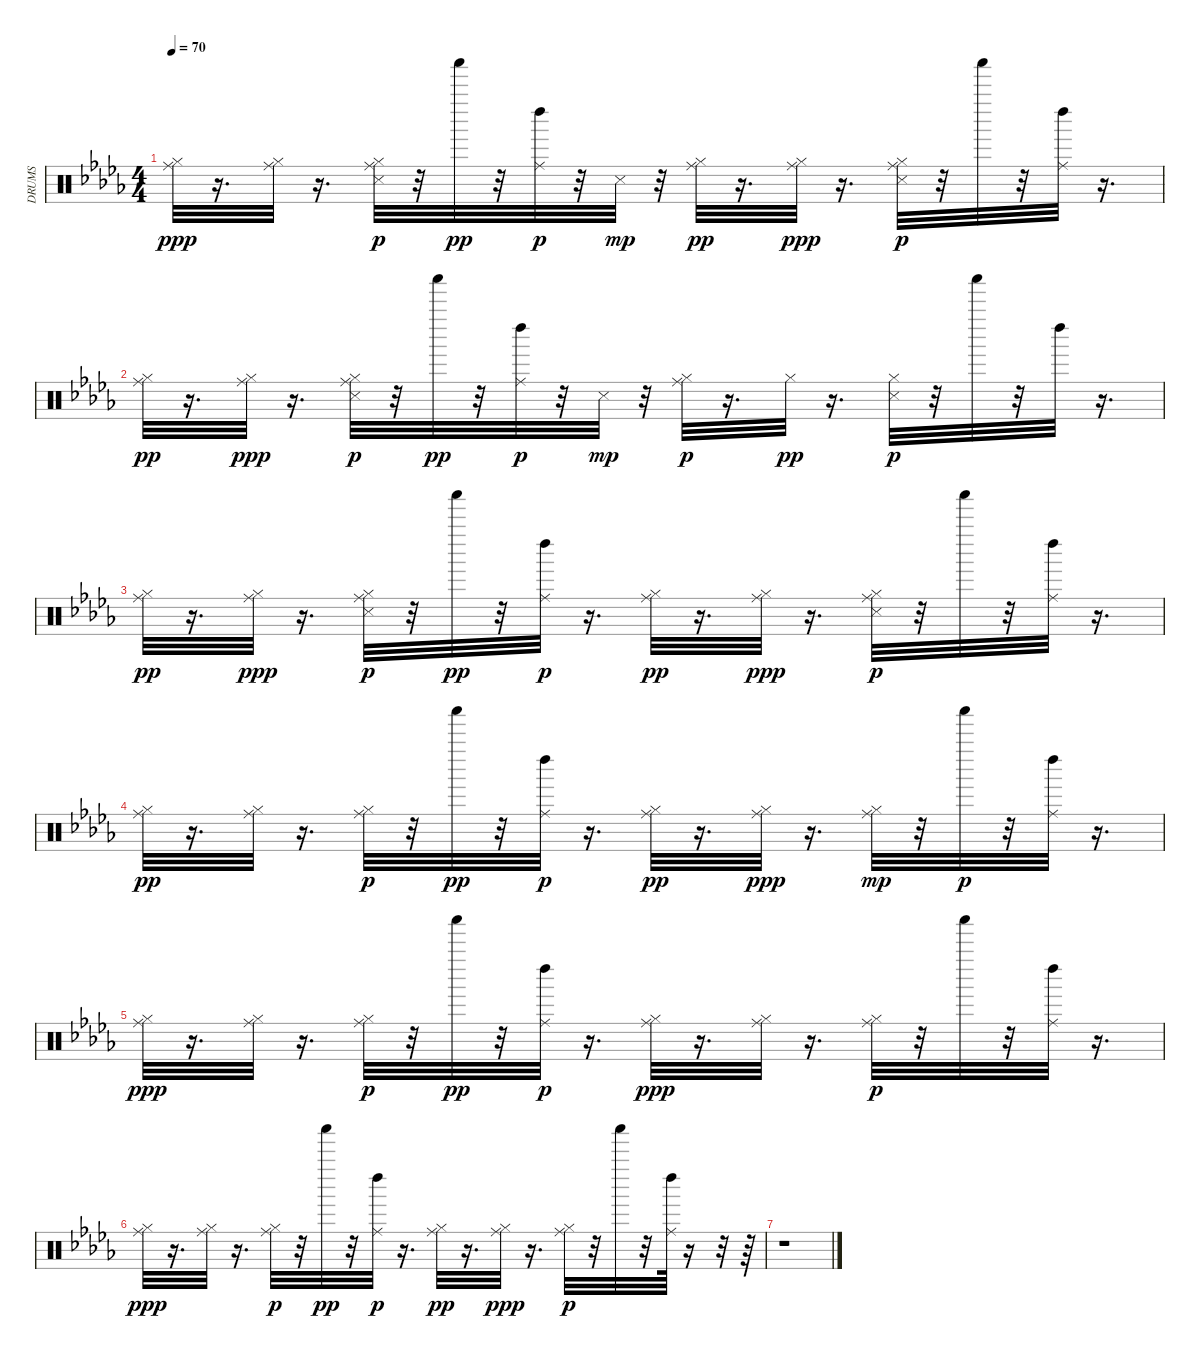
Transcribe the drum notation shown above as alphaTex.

\track ("DRUMS" "DRUMS") {instrument percussion}
\staff {score}
\articulation defaults
\ts (4 4)
\tempo 70
\clef neutral
\ks bbminor
("Hi-Hat (closed)" "Ride (middle)").32{dy ppp} r.16{d} ("Hi-Hat (closed)" "Ride (middle)").32 r.16{d} ("Snare (side stick) 3" "Hi-Hat (closed)" "Ride (middle)").32{dy p} r.32 "Shaker (hit)".32{dy pp} r.32 ("Ride (middle)" "Left Maraca (hit)").32{dy p} r.32 "Snare (side stick) 3".32{dy mp} r.32 ("Hi-Hat (closed)" "Ride (middle)").32{dy pp} r.16{d} ("Hi-Hat (closed)" "Ride (middle)").32{dy ppp} r.16{d} ("Snare (side stick) 3" "Hi-Hat (closed)" "Ride (middle)").32{dy p} r.32 "Shaker (hit)".32 r.32 ("Ride (middle)" "Left Maraca (hit)").32 r.16{d} |
("Hi-Hat (closed)" "Ride (middle)").32{dy pp} r.16{d} ("Hi-Hat (closed)" "Ride (middle)").32{dy ppp} r.16{d} ("Snare (side stick) 3" "Hi-Hat (closed)" "Ride (middle)").32{dy p} r.32 "Shaker (hit)".32{dy pp} r.32 ("Ride (middle)" "Left Maraca (hit)").32{dy p} r.32 "Snare (side stick) 3".32{dy mp} r.32 ("Hi-Hat (closed)" "Ride (middle)").32{dy p} r.16{d} "Hi-Hat (closed)".32{dy pp} r.16{d} ("Snare (side stick) 3" "Hi-Hat (closed)").32{dy p} r.32 "Shaker (hit)".32 r.32 "Left Maraca (hit)".32 r.16{d} |
("Hi-Hat (closed)" "Ride (middle)").32{dy pp} r.16{d} ("Hi-Hat (closed)" "Ride (middle)").32{dy ppp} r.16{d} ("Snare (side stick) 3" "Hi-Hat (closed)" "Ride (middle)").32{dy p} r.32 "Shaker (hit)".32{dy pp} r.32 ("Ride (middle)" "Left Maraca (hit)").32{dy p} r.16{d} ("Hi-Hat (closed)" "Ride (middle)").32{dy pp} r.16{d} ("Hi-Hat (closed)" "Ride (middle)").32{dy ppp} r.16{d} ("Snare (side stick) 3" "Hi-Hat (closed)" "Ride (middle)").32{dy p} r.32 "Shaker (hit)".32 r.32 ("Ride (middle)" "Left Maraca (hit)").32 r.16{d} |
("Hi-Hat (closed)" "Ride (middle)").32{dy pp} r.16{d} ("Hi-Hat (closed)" "Ride (middle)").32 r.16{d} ("Hi-Hat (closed)" "Ride (middle)").32{dy p} r.32 "Shaker (hit)".32{dy pp} r.32 ("Ride (middle)" "Left Maraca (hit)").32{dy p} r.16{d} ("Hi-Hat (closed)" "Ride (middle)").32{dy pp} r.16{d} ("Hi-Hat (closed)" "Ride (middle)").32{dy ppp} r.16{d} ("Hi-Hat (closed)" "Ride (middle)").32{dy mp} r.32 "Shaker (hit)".32{dy p} r.32 ("Ride (middle)" "Left Maraca (hit)").32 r.16{d} |
("Hi-Hat (closed)" "Ride (middle)").32{dy ppp} r.16{d} ("Hi-Hat (closed)" "Ride (middle)").32 r.16{d} ("Hi-Hat (closed)" "Ride (middle)").32{dy p} r.32 "Shaker (hit)".32{dy pp} r.32 ("Ride (middle)" "Left Maraca (hit)").32{dy p} r.16{d} ("Hi-Hat (closed)" "Ride (middle)").32{dy ppp} r.16{d} ("Hi-Hat (closed)" "Ride (middle)").32 r.16{d} ("Hi-Hat (closed)" "Ride (middle)").32{dy p} r.32 "Shaker (hit)".32 r.32 ("Ride (middle)" "Left Maraca (hit)").32 r.16{d} |
("Hi-Hat (closed)" "Ride (middle)").32{dy ppp} r.16{d} ("Hi-Hat (closed)" "Ride (middle)").32 r.16{d} ("Hi-Hat (closed)" "Ride (middle)").32{dy p} r.32 "Shaker (hit)".32{dy pp} r.32 ("Ride (middle)" "Left Maraca (hit)").32{dy p} r.16{d} ("Hi-Hat (closed)" "Ride (middle)").32{dy pp} r.16{d} ("Hi-Hat (closed)" "Ride (middle)").32{dy ppp} r.16{d} ("Hi-Hat (closed)" "Ride (middle)").32{dy p} r.32 "Shaker (hit)".32 r.32 ("Ride (middle)" "Left Maraca (hit)").64 r.16 r.32 r.64 |
r.1
